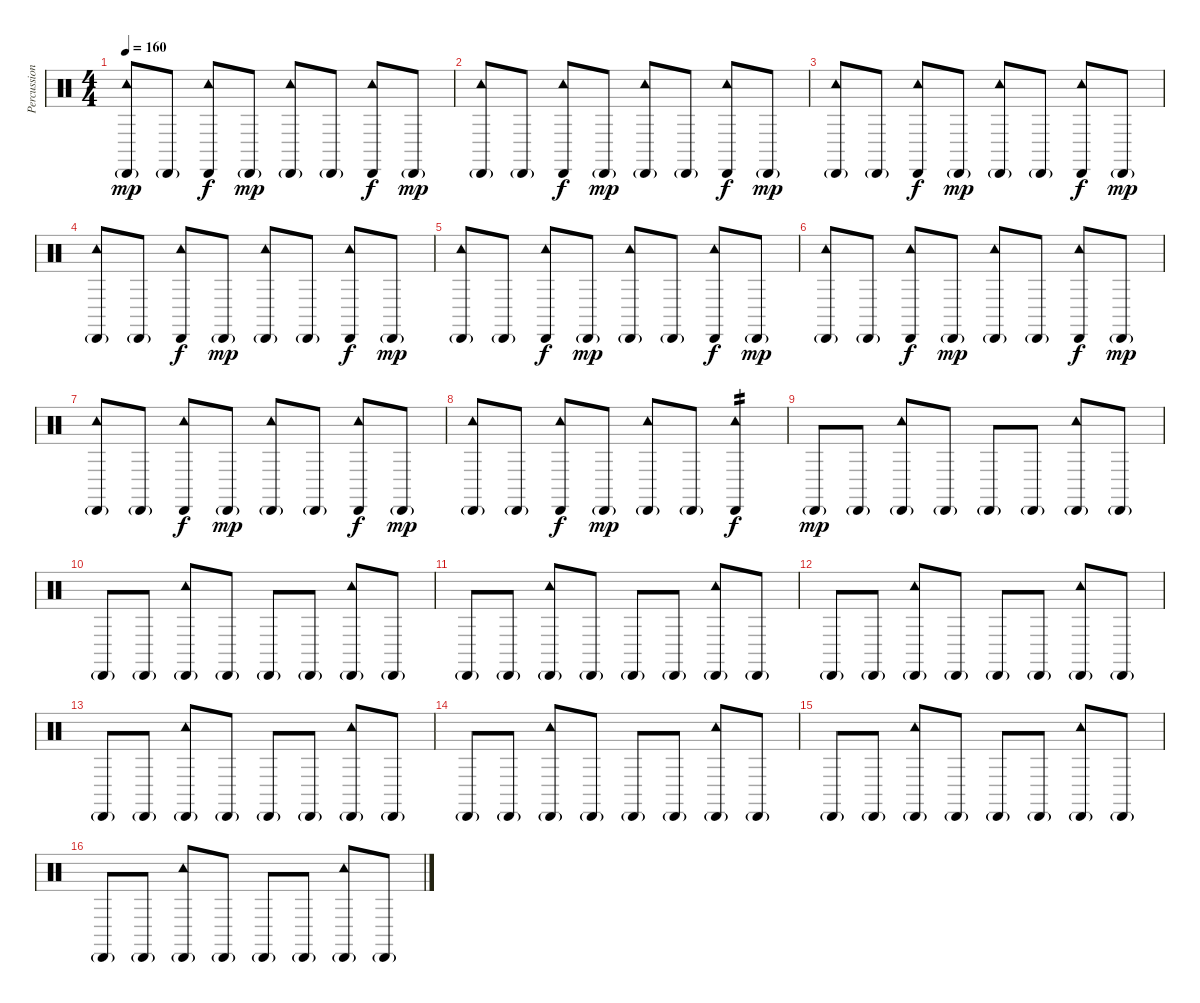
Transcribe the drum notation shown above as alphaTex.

\track ("Percussion" "Percussion") {instrument percussion}
\staff {score}
\articulation defaults
\ts (4 4)
\tempo 160
\clef neutral
\ks c
("Cabasa (hit)"{g} "Tambourine (hit)").8{dy mp} "Cabasa (hit)"{g}.8 ("Cabasa (hit)" "Tambourine (hit)").8{dy f} "Cabasa (hit)"{g}.8{dy mp} ("Cabasa (hit)"{g} "Tambourine (hit)").8 "Cabasa (hit)"{g}.8 ("Cabasa (hit)" "Tambourine (hit)").8{dy f} "Cabasa (hit)"{g}.8{dy mp} |
("Cabasa (hit)"{g} "Tambourine (hit)").8 "Cabasa (hit)"{g}.8 ("Cabasa (hit)" "Tambourine (hit)").8{dy f} "Cabasa (hit)"{g}.8{dy mp} ("Cabasa (hit)"{g} "Tambourine (hit)").8 "Cabasa (hit)"{g}.8 ("Cabasa (hit)" "Tambourine (hit)").8{dy f} "Cabasa (hit)"{g}.8{dy mp} |
("Cabasa (hit)"{g} "Tambourine (hit)").8 "Cabasa (hit)"{g}.8 ("Cabasa (hit)" "Tambourine (hit)").8{dy f} "Cabasa (hit)"{g}.8{dy mp} ("Cabasa (hit)"{g} "Tambourine (hit)").8 "Cabasa (hit)"{g}.8 ("Cabasa (hit)" "Tambourine (hit)").8{dy f} "Cabasa (hit)"{g}.8{dy mp} |
("Cabasa (hit)"{g} "Tambourine (hit)").8 "Cabasa (hit)"{g}.8 ("Cabasa (hit)" "Tambourine (hit)").8{dy f} "Cabasa (hit)"{g}.8{dy mp} ("Cabasa (hit)"{g} "Tambourine (hit)").8 "Cabasa (hit)"{g}.8 ("Cabasa (hit)" "Tambourine (hit)").8{dy f} "Cabasa (hit)"{g}.8{dy mp} |
("Cabasa (hit)"{g} "Tambourine (hit)").8 "Cabasa (hit)"{g}.8 ("Cabasa (hit)" "Tambourine (hit)").8{dy f} "Cabasa (hit)"{g}.8{dy mp} ("Cabasa (hit)"{g} "Tambourine (hit)").8 "Cabasa (hit)"{g}.8 ("Cabasa (hit)" "Tambourine (hit)").8{dy f} "Cabasa (hit)"{g}.8{dy mp} |
("Cabasa (hit)"{g} "Tambourine (hit)").8 "Cabasa (hit)"{g}.8 ("Cabasa (hit)" "Tambourine (hit)").8{dy f} "Cabasa (hit)"{g}.8{dy mp} ("Cabasa (hit)"{g} "Tambourine (hit)").8 "Cabasa (hit)"{g}.8 ("Cabasa (hit)" "Tambourine (hit)").8{dy f} "Cabasa (hit)"{g}.8{dy mp} |
("Cabasa (hit)"{g} "Tambourine (hit)").8 "Cabasa (hit)"{g}.8 ("Cabasa (hit)" "Tambourine (hit)").8{dy f} "Cabasa (hit)"{g}.8{dy mp} ("Cabasa (hit)"{g} "Tambourine (hit)").8 "Cabasa (hit)"{g}.8 ("Cabasa (hit)" "Tambourine (hit)").8{dy f} "Cabasa (hit)"{g}.8{dy mp} |
("Cabasa (hit)"{g} "Tambourine (hit)").8 "Cabasa (hit)"{g}.8 ("Cabasa (hit)" "Tambourine (hit)").8{dy f} "Cabasa (hit)"{g}.8{dy mp} ("Cabasa (hit)"{g} "Tambourine (hit)").8 "Cabasa (hit)"{g}.8 ("Cabasa (hit)" "Tambourine (hit)").4{tp 2 dy f} |
"Cabasa (hit)"{g}.8{dy mp} "Cabasa (hit)"{g}.8 ("Cabasa (hit)"{g} "Tambourine (hit)").8 "Cabasa (hit)"{g}.8 "Cabasa (hit)"{g}.8 "Cabasa (hit)"{g}.8 ("Cabasa (hit)"{g} "Tambourine (hit)").8 "Cabasa (hit)"{g}.8 |
"Cabasa (hit)"{g}.8 "Cabasa (hit)"{g}.8 ("Cabasa (hit)"{g} "Tambourine (hit)").8 "Cabasa (hit)"{g}.8 "Cabasa (hit)"{g}.8 "Cabasa (hit)"{g}.8 ("Cabasa (hit)"{g} "Tambourine (hit)").8 "Cabasa (hit)"{g}.8 |
"Cabasa (hit)"{g}.8 "Cabasa (hit)"{g}.8 ("Cabasa (hit)"{g} "Tambourine (hit)").8 "Cabasa (hit)"{g}.8 "Cabasa (hit)"{g}.8 "Cabasa (hit)"{g}.8 ("Cabasa (hit)"{g} "Tambourine (hit)").8 "Cabasa (hit)"{g}.8 |
"Cabasa (hit)"{g}.8 "Cabasa (hit)"{g}.8 ("Cabasa (hit)"{g} "Tambourine (hit)").8 "Cabasa (hit)"{g}.8 "Cabasa (hit)"{g}.8 "Cabasa (hit)"{g}.8 ("Cabasa (hit)"{g} "Tambourine (hit)").8 "Cabasa (hit)"{g}.8 |
"Cabasa (hit)"{g}.8 "Cabasa (hit)"{g}.8 ("Cabasa (hit)"{g} "Tambourine (hit)").8 "Cabasa (hit)"{g}.8 "Cabasa (hit)"{g}.8 "Cabasa (hit)"{g}.8 ("Cabasa (hit)"{g} "Tambourine (hit)").8 "Cabasa (hit)"{g}.8 |
"Cabasa (hit)"{g}.8 "Cabasa (hit)"{g}.8 ("Cabasa (hit)"{g} "Tambourine (hit)").8 "Cabasa (hit)"{g}.8 "Cabasa (hit)"{g}.8 "Cabasa (hit)"{g}.8 ("Cabasa (hit)"{g} "Tambourine (hit)").8 "Cabasa (hit)"{g}.8 |
"Cabasa (hit)"{g}.8 "Cabasa (hit)"{g}.8 ("Cabasa (hit)"{g} "Tambourine (hit)").8 "Cabasa (hit)"{g}.8 "Cabasa (hit)"{g}.8 "Cabasa (hit)"{g}.8 ("Cabasa (hit)"{g} "Tambourine (hit)").8 "Cabasa (hit)"{g}.8 |
"Cabasa (hit)"{g}.8 "Cabasa (hit)"{g}.8 ("Cabasa (hit)"{g} "Tambourine (hit)").8 "Cabasa (hit)"{g}.8 "Cabasa (hit)"{g}.8 "Cabasa (hit)"{g}.8 ("Cabasa (hit)"{g} "Tambourine (hit)").8 "Cabasa (hit)"{g}.8
